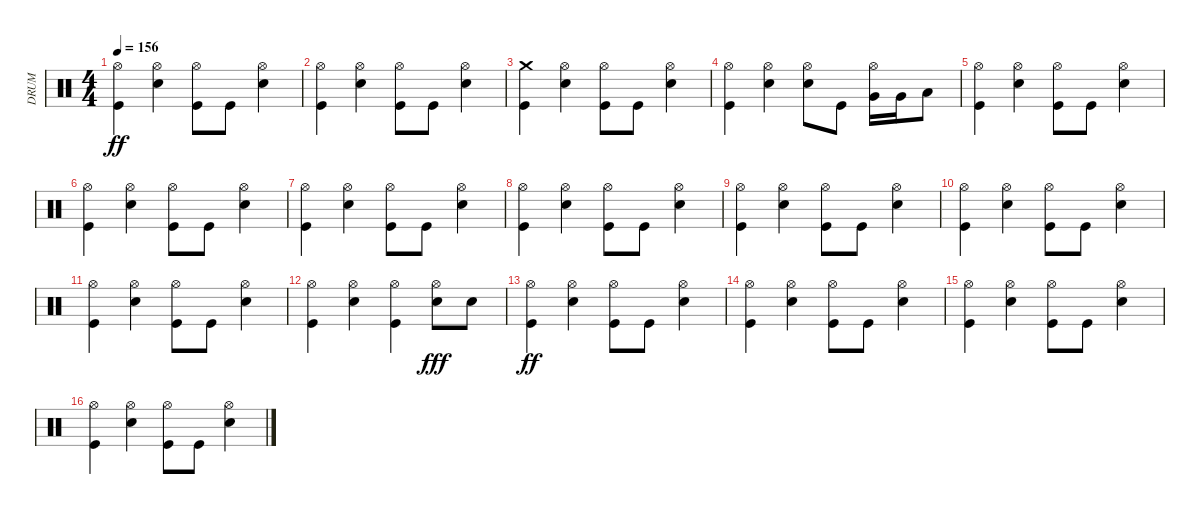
\track ("DRUM" "DRUM") {instrument percussion}
\staff {score}
\articulation defaults
\ts (4 4)
\tempo 156
\clef neutral
\ks c
("Hi-Hat (open)" "Kick (hit)").4{dy ff} ("Hi-Hat (open)" "Snare (hit) 2").4 ("Hi-Hat (open)" "Kick (hit)").8 "Kick (hit)".8 ("Hi-Hat (open)" "Snare (hit) 2").4 |
("Hi-Hat (open)" "Kick (hit)").4 ("Hi-Hat (open)" "Snare (hit) 2").4 ("Hi-Hat (open)" "Kick (hit)").8 "Kick (hit)".8 ("Hi-Hat (open)" "Snare (hit) 2").4 |
("Crash medium (hit)" "Kick (hit)").4 ("Hi-Hat (open)" "Snare (hit) 2").4 ("Hi-Hat (open)" "Kick (hit)").8 "Kick (hit)".8 ("Hi-Hat (open)" "Snare (hit) 2").4 |
("Hi-Hat (open)" "Kick (hit)").4 ("Hi-Hat (open)" "Snare (hit) 2").4 ("Hi-Hat (open)" "Snare (hit) 2").8 "Kick (hit)".8 ("Hi-Hat (open)" "Very Low Tom (hit)").16 "Very Low Tom (hit)".16 "Low Tom (hit)".8 |
("Hi-Hat (open)" "Kick (hit)").4 ("Hi-Hat (open)" "Snare (hit) 2").4 ("Hi-Hat (open)" "Kick (hit)").8 "Kick (hit)".8 ("Hi-Hat (open)" "Snare (hit) 2").4 |
("Hi-Hat (open)" "Kick (hit)").4 ("Hi-Hat (open)" "Snare (hit) 2").4 ("Hi-Hat (open)" "Kick (hit)").8 "Kick (hit)".8 ("Hi-Hat (open)" "Snare (hit) 2").4 |
("Hi-Hat (open)" "Kick (hit)").4 ("Hi-Hat (open)" "Snare (hit) 2").4 ("Hi-Hat (open)" "Kick (hit)").8 "Kick (hit)".8 ("Hi-Hat (open)" "Snare (hit) 2").4 |
("Hi-Hat (open)" "Kick (hit)").4 ("Hi-Hat (open)" "Snare (hit) 2").4 ("Hi-Hat (open)" "Kick (hit)").8 "Kick (hit)".8 ("Hi-Hat (open)" "Snare (hit) 2").4 |
("Hi-Hat (open)" "Kick (hit)").4 ("Hi-Hat (open)" "Snare (hit) 2").4 ("Hi-Hat (open)" "Kick (hit)").8 "Kick (hit)".8 ("Hi-Hat (open)" "Snare (hit) 2").4 |
("Hi-Hat (open)" "Kick (hit)").4 ("Hi-Hat (open)" "Snare (hit) 2").4 ("Hi-Hat (open)" "Kick (hit)").8 "Kick (hit)".8 ("Hi-Hat (open)" "Snare (hit) 2").4 |
("Hi-Hat (open)" "Kick (hit)").4 ("Hi-Hat (open)" "Snare (hit) 2").4 ("Hi-Hat (open)" "Kick (hit)").8 "Kick (hit)".8 ("Hi-Hat (open)" "Snare (hit) 2").4 |
("Hi-Hat (open)" "Kick (hit)").4 ("Hi-Hat (open)" "Snare (hit) 2").4 ("Hi-Hat (open)" "Kick (hit)").4 ("Hi-Hat (open)" "Snare (hit) 2").8{dy fff} "Snare (hit) 2".8 |
("Hi-Hat (open)" "Kick (hit)").4{dy ff} ("Hi-Hat (open)" "Snare (hit) 2").4 ("Hi-Hat (open)" "Kick (hit)").8 "Kick (hit)".8 ("Hi-Hat (open)" "Snare (hit) 2").4 |
("Hi-Hat (open)" "Kick (hit)").4 ("Hi-Hat (open)" "Snare (hit) 2").4 ("Hi-Hat (open)" "Kick (hit)").8 "Kick (hit)".8 ("Hi-Hat (open)" "Snare (hit) 2").4 |
("Hi-Hat (open)" "Kick (hit)").4 ("Hi-Hat (open)" "Snare (hit) 2").4 ("Hi-Hat (open)" "Kick (hit)").8 "Kick (hit)".8 ("Hi-Hat (open)" "Snare (hit) 2").4 |
("Hi-Hat (open)" "Kick (hit)").4 ("Hi-Hat (open)" "Snare (hit) 2").4 ("Hi-Hat (open)" "Kick (hit)").8 "Kick (hit)".8 ("Hi-Hat (open)" "Snare (hit) 2").4
